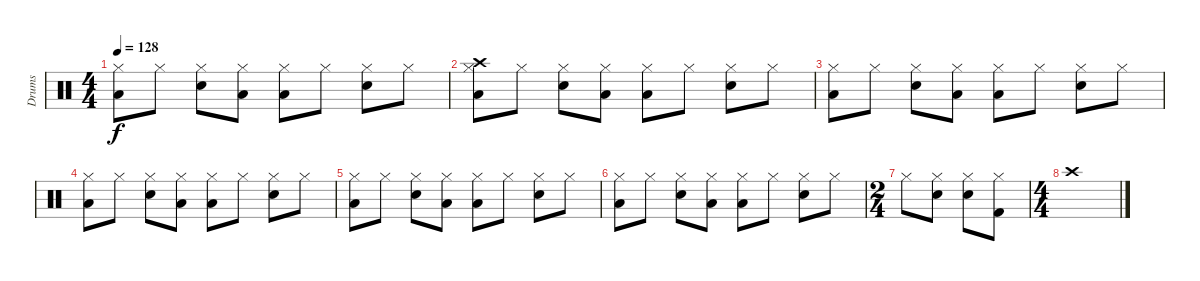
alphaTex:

\track ("Drums" "Drums") {instrument percussion}
\staff {score}
\articulation defaults
\ts (4 4)
\tempo 128
\clef neutral
\ks c
("Hi-Hat (closed)" "Low Tom (hit)").8{dy f} "Hi-Hat (closed)".8 ("Hi-Hat (closed)" "Snare (hit) 2").8 ("Hi-Hat (closed)" "Low Tom (hit)").8 ("Hi-Hat (closed)" "Low Tom (hit)").8 "Hi-Hat (closed)".8 ("Hi-Hat (closed)" "Snare (hit) 2").8 "Hi-Hat (closed)".8 |
("Hi-Hat (closed)" "Low Tom (hit)" "Crash high (hit)").8 "Hi-Hat (closed)".8 ("Hi-Hat (closed)" "Snare (hit) 2").8 ("Hi-Hat (closed)" "Low Tom (hit)").8 ("Hi-Hat (closed)" "Low Tom (hit)").8 "Hi-Hat (closed)".8 ("Hi-Hat (closed)" "Snare (hit) 2").8 "Hi-Hat (closed)".8 |
("Hi-Hat (closed)" "Low Tom (hit)").8 "Hi-Hat (closed)".8 ("Hi-Hat (closed)" "Snare (hit) 2").8 ("Hi-Hat (closed)" "Low Tom (hit)").8 ("Hi-Hat (closed)" "Low Tom (hit)").8 "Hi-Hat (closed)".8 ("Hi-Hat (closed)" "Snare (hit) 2").8 "Hi-Hat (closed)".8 |
("Hi-Hat (closed)" "Low Tom (hit)").8 "Hi-Hat (closed)".8 ("Hi-Hat (closed)" "Snare (hit) 2").8 ("Hi-Hat (closed)" "Low Tom (hit)").8 ("Hi-Hat (closed)" "Low Tom (hit)").8 "Hi-Hat (closed)".8 ("Hi-Hat (closed)" "Snare (hit) 2").8 "Hi-Hat (closed)".8 |
("Hi-Hat (closed)" "Low Tom (hit)").8 "Hi-Hat (closed)".8 ("Hi-Hat (closed)" "Snare (hit) 2").8 ("Hi-Hat (closed)" "Low Tom (hit)").8 ("Hi-Hat (closed)" "Low Tom (hit)").8 "Hi-Hat (closed)".8 ("Hi-Hat (closed)" "Snare (hit) 2").8 "Hi-Hat (closed)".8 |
("Hi-Hat (closed)" "Low Tom (hit)").8 "Hi-Hat (closed)".8 ("Hi-Hat (closed)" "Snare (hit) 2").8 ("Hi-Hat (closed)" "Low Tom (hit)").8 ("Hi-Hat (closed)" "Low Tom (hit)").8 "Hi-Hat (closed)".8 ("Hi-Hat (closed)" "Snare (hit) 2").8 "Hi-Hat (closed)".8 |
\ts (2 4)
"Hi-Hat (closed)".8 ("Hi-Hat (closed)" "Snare (hit) 2").8 ("Hi-Hat (closed)" "Snare (hit) 2").8 ("Hi-Hat (closed)" "Kick (hit) 2").8 |
\ts (4 4)
"Crash high (hit)".1
